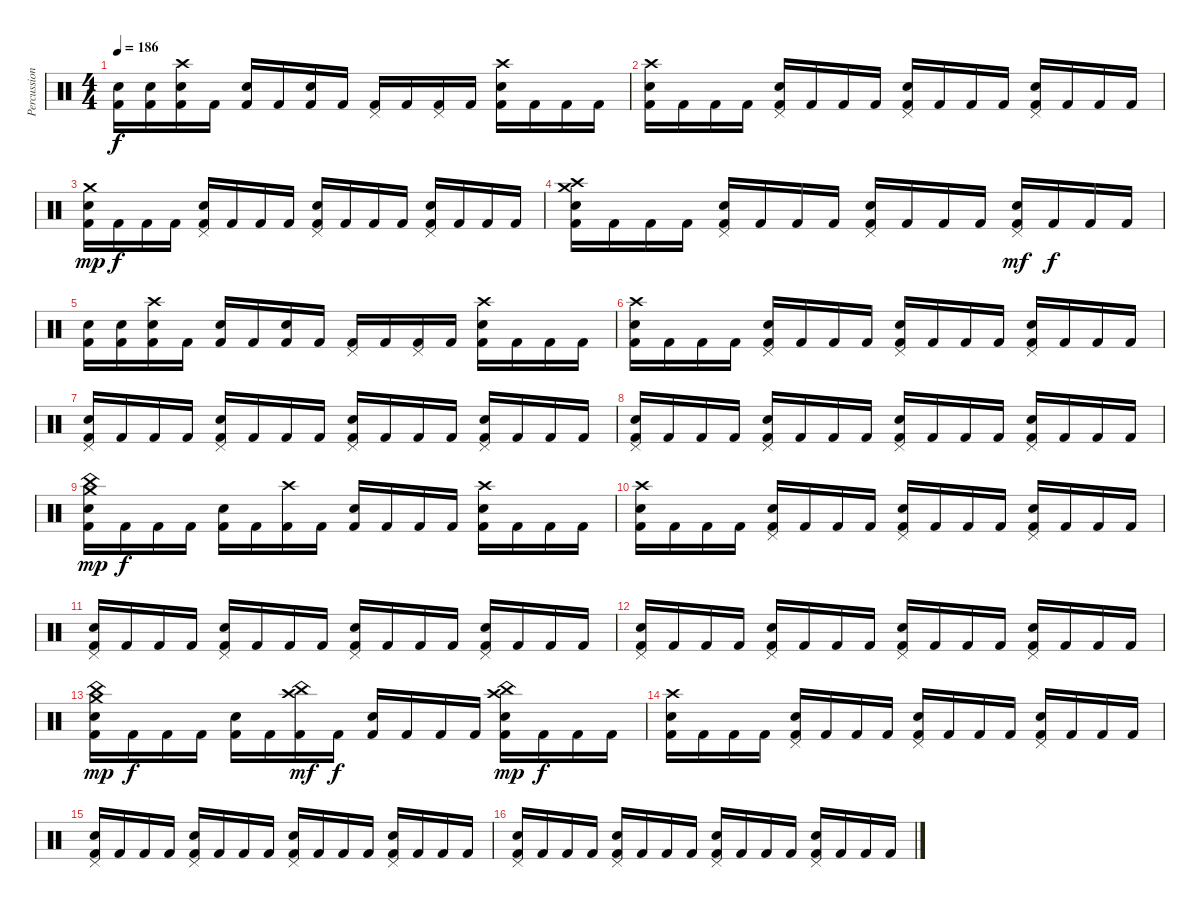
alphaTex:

\track ("Percussion" "Percussion") {instrument percussion}
\staff {score}
\articulation defaults
\ts (4 4)
\tempo 186
\clef neutral
\ks c
("Electric Snare (hit)" "Kick (hit) 2").16{dy f} ("Electric Snare (hit)" "Kick (hit) 2").16 ("Crash high (hit)" "Electric Snare (hit)" "Kick (hit) 2").16 "Kick (hit) 2".16 ("Electric Snare (hit)" "Kick (hit) 2").16 "Kick (hit) 2".16 ("Electric Snare (hit)" "Kick (hit) 2").16 "Kick (hit) 2".16 ("Pedal Hi-Hat (hit)" "Kick (hit) 2").16 "Kick (hit) 2".16 ("Pedal Hi-Hat (hit)" "Kick (hit) 2").16 "Kick (hit) 2".16 ("Crash high (hit)" "Electric Snare (hit)" "Kick (hit) 2").16 "Kick (hit) 2".16 "Kick (hit) 2".16 "Kick (hit) 2".16 |
("Crash high (hit)" "Electric Snare (hit)" "Kick (hit) 2").16 "Kick (hit) 2".16 "Kick (hit) 2".16 "Kick (hit) 2".16 ("Pedal Hi-Hat (hit)" "Electric Snare (hit)" "Kick (hit) 2").16 "Kick (hit) 2".16 "Kick (hit) 2".16 "Kick (hit) 2".16 ("Pedal Hi-Hat (hit)" "Electric Snare (hit)" "Kick (hit) 2").16 "Kick (hit) 2".16 "Kick (hit) 2".16 "Kick (hit) 2".16 ("Pedal Hi-Hat (hit)" "Electric Snare (hit)" "Kick (hit) 2").16 "Kick (hit) 2".16 "Kick (hit) 2".16 "Kick (hit) 2".16 |
("Crash medium (hit)" "Electric Snare (hit)" "Kick (hit) 2").16{dy mp} "Kick (hit) 2".16{dy f} "Kick (hit) 2".16 "Kick (hit) 2".16 ("Pedal Hi-Hat (hit)" "Electric Snare (hit)" "Kick (hit) 2").16 "Kick (hit) 2".16 "Kick (hit) 2".16 "Kick (hit) 2".16 ("Pedal Hi-Hat (hit)" "Electric Snare (hit)" "Kick (hit) 2").16 "Kick (hit) 2".16 "Kick (hit) 2".16 "Kick (hit) 2".16 ("Pedal Hi-Hat (hit)" "Electric Snare (hit)" "Kick (hit) 2").16 "Kick (hit) 2".16 "Kick (hit) 2".16 "Kick (hit) 2".16 |
("Crash high (hit)" "Crash medium (hit)" "Electric Snare (hit)" "Kick (hit) 2").16 "Kick (hit) 2".16 "Kick (hit) 2".16 "Kick (hit) 2".16 ("Pedal Hi-Hat (hit)" "Electric Snare (hit)" "Kick (hit) 2").16 "Kick (hit) 2".16 "Kick (hit) 2".16 "Kick (hit) 2".16 ("Pedal Hi-Hat (hit)" "Electric Snare (hit)" "Kick (hit) 2").16 "Kick (hit) 2".16 "Kick (hit) 2".16 "Kick (hit) 2".16 ("Pedal Hi-Hat (hit)" "Electric Snare (hit)" "Kick (hit) 2").16{dy mf} "Kick (hit) 2".16{dy f} "Kick (hit) 2".16 "Kick (hit) 2".16 |
("Electric Snare (hit)" "Kick (hit) 2").16 ("Electric Snare (hit)" "Kick (hit) 2").16 ("Crash high (hit)" "Electric Snare (hit)" "Kick (hit) 2").16 "Kick (hit) 2".16 ("Electric Snare (hit)" "Kick (hit) 2").16 "Kick (hit) 2".16 ("Electric Snare (hit)" "Kick (hit) 2").16 "Kick (hit) 2".16 ("Pedal Hi-Hat (hit)" "Kick (hit) 2").16 "Kick (hit) 2".16 ("Pedal Hi-Hat (hit)" "Kick (hit) 2").16 "Kick (hit) 2".16 ("Crash high (hit)" "Electric Snare (hit)" "Kick (hit) 2").16 "Kick (hit) 2".16 "Kick (hit) 2".16 "Kick (hit) 2".16 |
("Crash high (hit)" "Electric Snare (hit)" "Kick (hit) 2").16 "Kick (hit) 2".16 "Kick (hit) 2".16 "Kick (hit) 2".16 ("Pedal Hi-Hat (hit)" "Electric Snare (hit)" "Kick (hit) 2").16 "Kick (hit) 2".16 "Kick (hit) 2".16 "Kick (hit) 2".16 ("Pedal Hi-Hat (hit)" "Electric Snare (hit)" "Kick (hit) 2").16 "Kick (hit) 2".16 "Kick (hit) 2".16 "Kick (hit) 2".16 ("Pedal Hi-Hat (hit)" "Electric Snare (hit)" "Kick (hit) 2").16 "Kick (hit) 2".16 "Kick (hit) 2".16 "Kick (hit) 2".16 |
("Pedal Hi-Hat (hit)" "Electric Snare (hit)" "Kick (hit) 2").16 "Kick (hit) 2".16 "Kick (hit) 2".16 "Kick (hit) 2".16 ("Pedal Hi-Hat (hit)" "Electric Snare (hit)" "Kick (hit) 2").16 "Kick (hit) 2".16 "Kick (hit) 2".16 "Kick (hit) 2".16 ("Pedal Hi-Hat (hit)" "Electric Snare (hit)" "Kick (hit) 2").16 "Kick (hit) 2".16 "Kick (hit) 2".16 "Kick (hit) 2".16 ("Pedal Hi-Hat (hit)" "Electric Snare (hit)" "Kick (hit) 2").16 "Kick (hit) 2".16 "Kick (hit) 2".16 "Kick (hit) 2".16 |
("Pedal Hi-Hat (hit)" "Electric Snare (hit)" "Kick (hit) 2").16 "Kick (hit) 2".16 "Kick (hit) 2".16 "Kick (hit) 2".16 ("Pedal Hi-Hat (hit)" "Electric Snare (hit)" "Kick (hit) 2").16 "Kick (hit) 2".16 "Kick (hit) 2".16 "Kick (hit) 2".16 ("Pedal Hi-Hat (hit)" "Electric Snare (hit)" "Kick (hit) 2").16 "Kick (hit) 2".16 "Kick (hit) 2".16 "Kick (hit) 2".16 ("Pedal Hi-Hat (hit)" "Electric Snare (hit)" "Kick (hit) 2").16 "Kick (hit) 2".16 "Kick (hit) 2".16 "Kick (hit) 2".16 |
("Crash medium (hit)" "China (hit)" "Electric Snare (hit)" "Kick (hit) 2").16{dy mp} "Kick (hit) 2".16{dy f} "Kick (hit) 2".16 "Kick (hit) 2".16 ("Electric Snare (hit)" "Kick (hit) 2").16 "Kick (hit) 2".16 ("Crash high (hit)" "Kick (hit) 2").16 "Kick (hit) 2".16 ("Electric Snare (hit)" "Kick (hit) 2").16 "Kick (hit) 2".16 "Kick (hit) 2".16 "Kick (hit) 2".16 ("Crash high (hit)" "Electric Snare (hit)" "Kick (hit) 2").16 "Kick (hit) 2".16 "Kick (hit) 2".16 "Kick (hit) 2".16 |
("Crash high (hit)" "Electric Snare (hit)" "Kick (hit) 2").16 "Kick (hit) 2".16 "Kick (hit) 2".16 "Kick (hit) 2".16 ("Pedal Hi-Hat (hit)" "Electric Snare (hit)" "Kick (hit) 2").16 "Kick (hit) 2".16 "Kick (hit) 2".16 "Kick (hit) 2".16 ("Pedal Hi-Hat (hit)" "Electric Snare (hit)" "Kick (hit) 2").16 "Kick (hit) 2".16 "Kick (hit) 2".16 "Kick (hit) 2".16 ("Pedal Hi-Hat (hit)" "Electric Snare (hit)" "Kick (hit) 2").16 "Kick (hit) 2".16 "Kick (hit) 2".16 "Kick (hit) 2".16 |
("Pedal Hi-Hat (hit)" "Electric Snare (hit)" "Kick (hit) 2").16 "Kick (hit) 2".16 "Kick (hit) 2".16 "Kick (hit) 2".16 ("Pedal Hi-Hat (hit)" "Electric Snare (hit)" "Kick (hit) 2").16 "Kick (hit) 2".16 "Kick (hit) 2".16 "Kick (hit) 2".16 ("Pedal Hi-Hat (hit)" "Electric Snare (hit)" "Kick (hit) 2").16 "Kick (hit) 2".16 "Kick (hit) 2".16 "Kick (hit) 2".16 ("Pedal Hi-Hat (hit)" "Electric Snare (hit)" "Kick (hit) 2").16 "Kick (hit) 2".16 "Kick (hit) 2".16 "Kick (hit) 2".16 |
("Pedal Hi-Hat (hit)" "Electric Snare (hit)" "Kick (hit) 2").16 "Kick (hit) 2".16 "Kick (hit) 2".16 "Kick (hit) 2".16 ("Pedal Hi-Hat (hit)" "Electric Snare (hit)" "Kick (hit) 2").16 "Kick (hit) 2".16 "Kick (hit) 2".16 "Kick (hit) 2".16 ("Pedal Hi-Hat (hit)" "Electric Snare (hit)" "Kick (hit) 2").16 "Kick (hit) 2".16 "Kick (hit) 2".16 "Kick (hit) 2".16 ("Pedal Hi-Hat (hit)" "Electric Snare (hit)" "Kick (hit) 2").16 "Kick (hit) 2".16 "Kick (hit) 2".16 "Kick (hit) 2".16 |
("Crash medium (hit)" "China (hit)" "Electric Snare (hit)" "Kick (hit) 2").16{dy mp} "Kick (hit) 2".16{dy f} "Kick (hit) 2".16 "Kick (hit) 2".16 ("Electric Snare (hit)" "Kick (hit) 2").16 "Kick (hit) 2".16 ("Crash high (hit)" "China (hit)" "Kick (hit) 2").16{dy mf} "Kick (hit) 2".16{dy f} ("Electric Snare (hit)" "Kick (hit) 2").16 "Kick (hit) 2".16 "Kick (hit) 2".16 "Kick (hit) 2".16 ("Crash high (hit)" "China (hit)" "Electric Snare (hit)" "Kick (hit) 2").16{dy mp} "Kick (hit) 2".16{dy f} "Kick (hit) 2".16 "Kick (hit) 2".16 |
("Crash high (hit)" "Electric Snare (hit)" "Kick (hit) 2").16 "Kick (hit) 2".16 "Kick (hit) 2".16 "Kick (hit) 2".16 ("Pedal Hi-Hat (hit)" "Electric Snare (hit)" "Kick (hit) 2").16 "Kick (hit) 2".16 "Kick (hit) 2".16 "Kick (hit) 2".16 ("Pedal Hi-Hat (hit)" "Electric Snare (hit)" "Kick (hit) 2").16 "Kick (hit) 2".16 "Kick (hit) 2".16 "Kick (hit) 2".16 ("Pedal Hi-Hat (hit)" "Electric Snare (hit)" "Kick (hit) 2").16 "Kick (hit) 2".16 "Kick (hit) 2".16 "Kick (hit) 2".16 |
("Pedal Hi-Hat (hit)" "Electric Snare (hit)" "Kick (hit) 2").16 "Kick (hit) 2".16 "Kick (hit) 2".16 "Kick (hit) 2".16 ("Pedal Hi-Hat (hit)" "Electric Snare (hit)" "Kick (hit) 2").16 "Kick (hit) 2".16 "Kick (hit) 2".16 "Kick (hit) 2".16 ("Pedal Hi-Hat (hit)" "Electric Snare (hit)" "Kick (hit) 2").16 "Kick (hit) 2".16 "Kick (hit) 2".16 "Kick (hit) 2".16 ("Pedal Hi-Hat (hit)" "Electric Snare (hit)" "Kick (hit) 2").16 "Kick (hit) 2".16 "Kick (hit) 2".16 "Kick (hit) 2".16 |
("Pedal Hi-Hat (hit)" "Electric Snare (hit)" "Kick (hit) 2").16 "Kick (hit) 2".16 "Kick (hit) 2".16 "Kick (hit) 2".16 ("Pedal Hi-Hat (hit)" "Electric Snare (hit)" "Kick (hit) 2").16 "Kick (hit) 2".16 "Kick (hit) 2".16 "Kick (hit) 2".16 ("Pedal Hi-Hat (hit)" "Electric Snare (hit)" "Kick (hit) 2").16 "Kick (hit) 2".16 "Kick (hit) 2".16 "Kick (hit) 2".16 ("Pedal Hi-Hat (hit)" "Electric Snare (hit)" "Kick (hit) 2").16 "Kick (hit) 2".16 "Kick (hit) 2".16 "Kick (hit) 2".16
